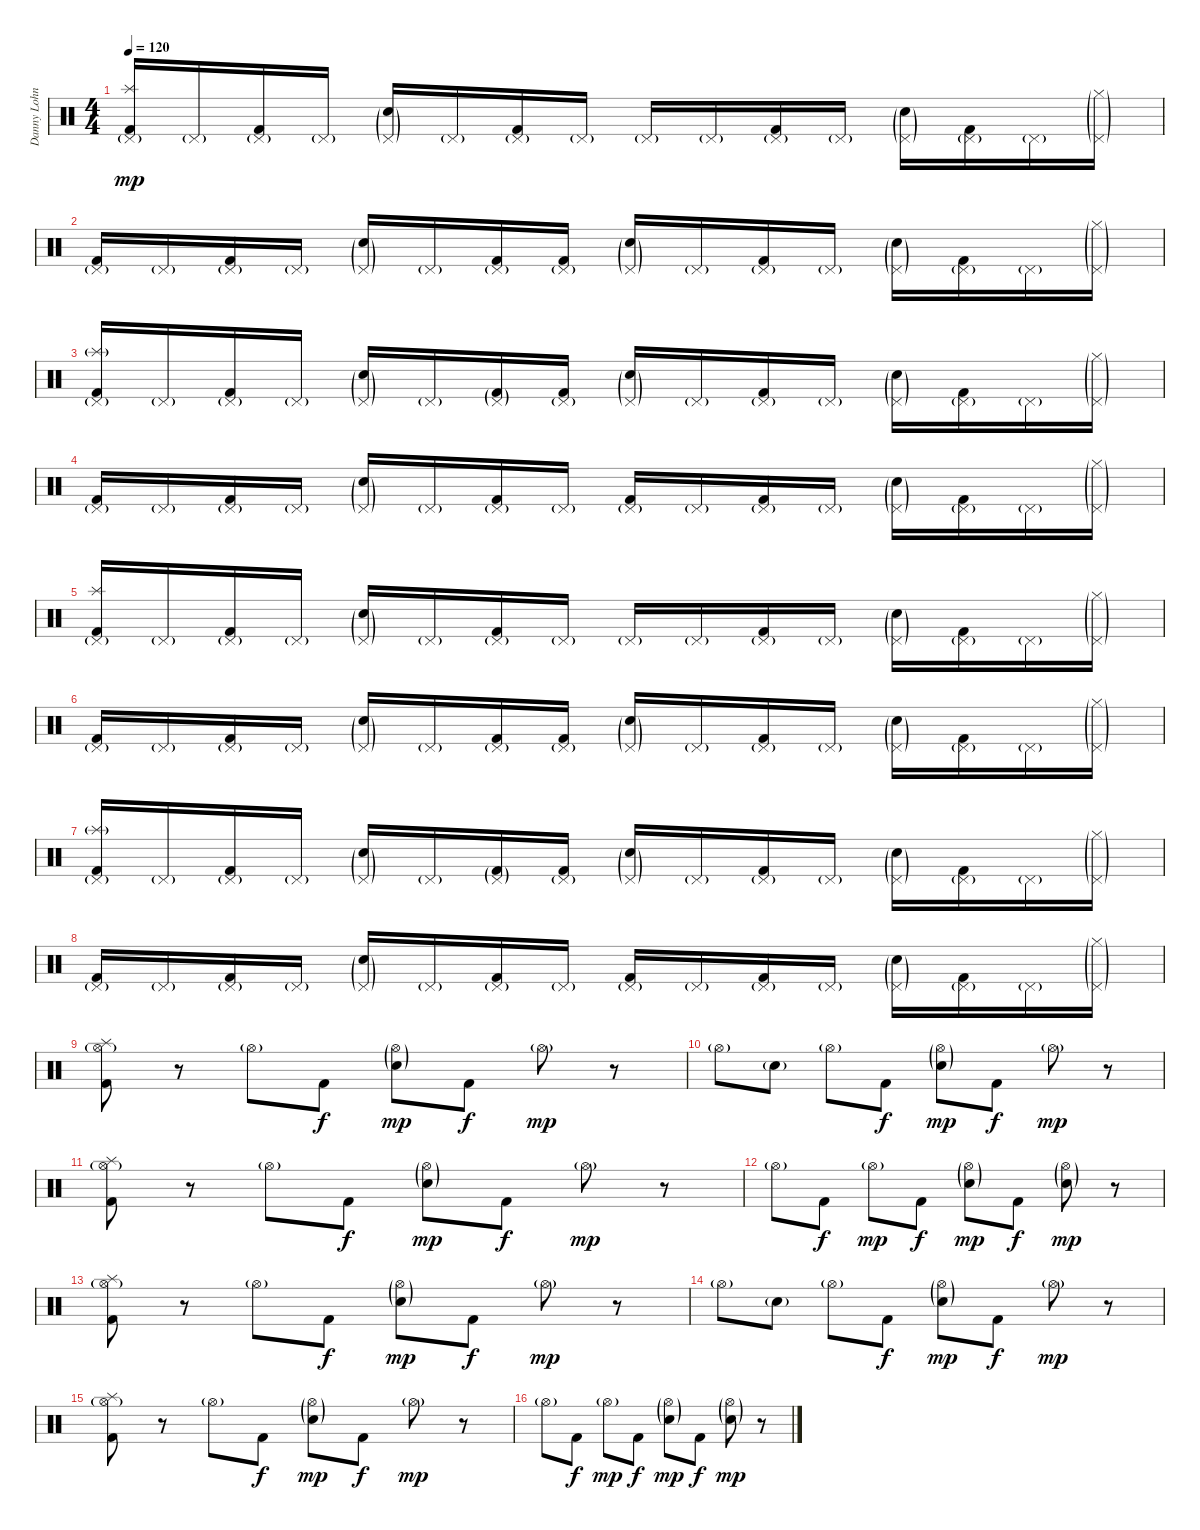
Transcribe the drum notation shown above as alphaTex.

\track ("Danny Lohner" "Danny Lohn") {instrument percussion}
\staff {score}
\articulation defaults
\ts (4 4)
\tempo 120
\clef neutral
\ks c
("Pedal Hi-Hat (hit)"{g} "Splash (hit)" "Kick (hit) 2").16{dy mp} "Pedal Hi-Hat (hit)"{g}.16 ("Pedal Hi-Hat (hit)"{g} "Kick (hit) 2").16 "Pedal Hi-Hat (hit)"{g}.16 ("Pedal Hi-Hat (hit)"{g} "Electric Snare (hit)"{g}).16 "Pedal Hi-Hat (hit)"{g}.16 ("Pedal Hi-Hat (hit)"{g} "Kick (hit) 2").16 "Pedal Hi-Hat (hit)"{g}.16 "Pedal Hi-Hat (hit)"{g}.16 "Pedal Hi-Hat (hit)"{g}.16 ("Pedal Hi-Hat (hit)"{g} "Kick (hit) 2").16 "Pedal Hi-Hat (hit)"{g}.16 ("Pedal Hi-Hat (hit)"{g} "Electric Snare (hit)"{g}).16 ("Pedal Hi-Hat (hit)"{g} "Kick (hit) 2").16 "Pedal Hi-Hat (hit)"{g}.16 ("Pedal Hi-Hat (hit)"{g} "Hi-Hat (closed)"{g}).16 |
("Pedal Hi-Hat (hit)"{g} "Kick (hit) 2").16 "Pedal Hi-Hat (hit)"{g}.16 ("Pedal Hi-Hat (hit)"{g} "Kick (hit) 2").16 "Pedal Hi-Hat (hit)"{g}.16 ("Pedal Hi-Hat (hit)"{g} "Electric Snare (hit)"{g}).16 "Pedal Hi-Hat (hit)"{g}.16 ("Pedal Hi-Hat (hit)"{g} "Kick (hit) 2").16 ("Pedal Hi-Hat (hit)"{g} "Kick (hit) 2").16 ("Pedal Hi-Hat (hit)"{g} "Electric Snare (hit)"{g}).16 "Pedal Hi-Hat (hit)"{g}.16 ("Pedal Hi-Hat (hit)"{g} "Kick (hit) 2").16 "Pedal Hi-Hat (hit)"{g}.16 ("Pedal Hi-Hat (hit)"{g} "Electric Snare (hit)"{g}).16 ("Pedal Hi-Hat (hit)"{g} "Kick (hit) 2").16 "Pedal Hi-Hat (hit)"{g}.16 ("Pedal Hi-Hat (hit)"{g} "Hi-Hat (closed)"{g}).16 |
("Pedal Hi-Hat (hit)"{g} "Splash (hit)"{g} "Kick (hit) 2").16 "Pedal Hi-Hat (hit)"{g}.16 ("Pedal Hi-Hat (hit)"{g} "Kick (hit) 2").16 "Pedal Hi-Hat (hit)"{g}.16 ("Pedal Hi-Hat (hit)"{g} "Electric Snare (hit)"{g}).16 "Pedal Hi-Hat (hit)"{g}.16 ("Pedal Hi-Hat (hit)"{g} "Kick (hit) 2"{g}).16 ("Pedal Hi-Hat (hit)"{g} "Kick (hit) 2").16 ("Pedal Hi-Hat (hit)"{g} "Electric Snare (hit)"{g}).16 "Pedal Hi-Hat (hit)"{g}.16 ("Pedal Hi-Hat (hit)"{g} "Kick (hit) 2").16 "Pedal Hi-Hat (hit)"{g}.16 ("Pedal Hi-Hat (hit)"{g} "Electric Snare (hit)"{g}).16 ("Pedal Hi-Hat (hit)"{g} "Kick (hit) 2").16 "Pedal Hi-Hat (hit)"{g}.16 ("Pedal Hi-Hat (hit)"{g} "Hi-Hat (closed)"{g}).16 |
("Pedal Hi-Hat (hit)"{g} "Kick (hit) 2").16 "Pedal Hi-Hat (hit)"{g}.16 ("Pedal Hi-Hat (hit)"{g} "Kick (hit) 2").16 "Pedal Hi-Hat (hit)"{g}.16 ("Pedal Hi-Hat (hit)"{g} "Electric Snare (hit)"{g}).16 "Pedal Hi-Hat (hit)"{g}.16 ("Pedal Hi-Hat (hit)"{g} "Kick (hit) 2").16 "Pedal Hi-Hat (hit)"{g}.16 ("Pedal Hi-Hat (hit)"{g} "Kick (hit) 2").16 "Pedal Hi-Hat (hit)"{g}.16 ("Pedal Hi-Hat (hit)"{g} "Kick (hit) 2").16 "Pedal Hi-Hat (hit)"{g}.16 ("Pedal Hi-Hat (hit)"{g} "Electric Snare (hit)"{g}).16 ("Pedal Hi-Hat (hit)"{g} "Kick (hit) 2").16 "Pedal Hi-Hat (hit)"{g}.16 ("Pedal Hi-Hat (hit)"{g} "Hi-Hat (closed)"{g}).16 |
("Pedal Hi-Hat (hit)"{g} "Splash (hit)" "Kick (hit) 2").16 "Pedal Hi-Hat (hit)"{g}.16 ("Pedal Hi-Hat (hit)"{g} "Kick (hit) 2").16 "Pedal Hi-Hat (hit)"{g}.16 ("Pedal Hi-Hat (hit)"{g} "Electric Snare (hit)"{g}).16 "Pedal Hi-Hat (hit)"{g}.16 ("Pedal Hi-Hat (hit)"{g} "Kick (hit) 2").16 "Pedal Hi-Hat (hit)"{g}.16 "Pedal Hi-Hat (hit)"{g}.16 "Pedal Hi-Hat (hit)"{g}.16 ("Pedal Hi-Hat (hit)"{g} "Kick (hit) 2").16 "Pedal Hi-Hat (hit)"{g}.16 ("Pedal Hi-Hat (hit)"{g} "Electric Snare (hit)"{g}).16 ("Pedal Hi-Hat (hit)"{g} "Kick (hit) 2").16 "Pedal Hi-Hat (hit)"{g}.16 ("Pedal Hi-Hat (hit)"{g} "Hi-Hat (closed)"{g}).16 |
("Pedal Hi-Hat (hit)"{g} "Kick (hit) 2").16 "Pedal Hi-Hat (hit)"{g}.16 ("Pedal Hi-Hat (hit)"{g} "Kick (hit) 2").16 "Pedal Hi-Hat (hit)"{g}.16 ("Pedal Hi-Hat (hit)"{g} "Electric Snare (hit)"{g}).16 "Pedal Hi-Hat (hit)"{g}.16 ("Pedal Hi-Hat (hit)"{g} "Kick (hit) 2").16 ("Pedal Hi-Hat (hit)"{g} "Kick (hit) 2").16 ("Pedal Hi-Hat (hit)"{g} "Electric Snare (hit)"{g}).16 "Pedal Hi-Hat (hit)"{g}.16 ("Pedal Hi-Hat (hit)"{g} "Kick (hit) 2").16 "Pedal Hi-Hat (hit)"{g}.16 ("Pedal Hi-Hat (hit)"{g} "Electric Snare (hit)"{g}).16 ("Pedal Hi-Hat (hit)"{g} "Kick (hit) 2").16 "Pedal Hi-Hat (hit)"{g}.16 ("Pedal Hi-Hat (hit)"{g} "Hi-Hat (closed)"{g}).16 |
("Pedal Hi-Hat (hit)"{g} "Splash (hit)"{g} "Kick (hit) 2").16 "Pedal Hi-Hat (hit)"{g}.16 ("Pedal Hi-Hat (hit)"{g} "Kick (hit) 2").16 "Pedal Hi-Hat (hit)"{g}.16 ("Pedal Hi-Hat (hit)"{g} "Electric Snare (hit)"{g}).16 "Pedal Hi-Hat (hit)"{g}.16 ("Pedal Hi-Hat (hit)"{g} "Kick (hit) 2"{g}).16 ("Pedal Hi-Hat (hit)"{g} "Kick (hit) 2").16 ("Pedal Hi-Hat (hit)"{g} "Electric Snare (hit)"{g}).16 "Pedal Hi-Hat (hit)"{g}.16 ("Pedal Hi-Hat (hit)"{g} "Kick (hit) 2").16 "Pedal Hi-Hat (hit)"{g}.16 ("Pedal Hi-Hat (hit)"{g} "Electric Snare (hit)"{g}).16 ("Pedal Hi-Hat (hit)"{g} "Kick (hit) 2").16 "Pedal Hi-Hat (hit)"{g}.16 ("Pedal Hi-Hat (hit)"{g} "Hi-Hat (closed)"{g}).16 |
("Pedal Hi-Hat (hit)"{g} "Kick (hit) 2").16 "Pedal Hi-Hat (hit)"{g}.16 ("Pedal Hi-Hat (hit)"{g} "Kick (hit) 2").16 "Pedal Hi-Hat (hit)"{g}.16 ("Pedal Hi-Hat (hit)"{g} "Electric Snare (hit)"{g}).16 "Pedal Hi-Hat (hit)"{g}.16 ("Pedal Hi-Hat (hit)"{g} "Kick (hit) 2").16 "Pedal Hi-Hat (hit)"{g}.16 ("Pedal Hi-Hat (hit)"{g} "Kick (hit) 2").16 "Pedal Hi-Hat (hit)"{g}.16 ("Pedal Hi-Hat (hit)"{g} "Kick (hit) 2").16 "Pedal Hi-Hat (hit)"{g}.16 ("Pedal Hi-Hat (hit)"{g} "Electric Snare (hit)"{g}).16 ("Pedal Hi-Hat (hit)"{g} "Kick (hit) 2").16 "Pedal Hi-Hat (hit)"{g}.16 ("Pedal Hi-Hat (hit)"{g} "Hi-Hat (closed)"{g}).16 |
("Hi-Hat (open)"{g} "Splash (hit)" "Kick (hit) 2").8 r.8 "Hi-Hat (open)"{g}.8 "Kick (hit) 2".8{dy f} ("Hi-Hat (open)"{g} "Electric Snare (hit)"{g}).8{dy mp} "Kick (hit) 2".8{dy f} "Hi-Hat (open)"{g}.8{dy mp} r.8 |
"Hi-Hat (open)"{g}.8 "Electric Snare (hit)"{g}.8 "Hi-Hat (open)"{g}.8 "Kick (hit) 2".8{dy f} ("Hi-Hat (open)"{g} "Electric Snare (hit)"{g}).8{dy mp} "Kick (hit) 2".8{dy f} "Hi-Hat (open)"{g}.8{dy mp} r.8 |
("Hi-Hat (open)"{g} "Splash (hit)" "Kick (hit) 2").8 r.8 "Hi-Hat (open)"{g}.8 "Kick (hit) 2".8{dy f} ("Hi-Hat (open)"{g} "Electric Snare (hit)"{g}).8{dy mp} "Kick (hit) 2".8{dy f} "Hi-Hat (open)"{g}.8{dy mp} r.8 |
"Hi-Hat (open)"{g}.8 "Kick (hit) 2".8{dy f} "Hi-Hat (open)"{g}.8{dy mp} "Kick (hit) 2".8{dy f} ("Hi-Hat (open)"{g} "Electric Snare (hit)"{g}).8{dy mp} "Kick (hit) 2".8{dy f} ("Hi-Hat (open)"{g} "Electric Snare (hit)"{g}).8{dy mp} r.8 |
("Hi-Hat (open)"{g} "Splash (hit)" "Kick (hit) 2").8 r.8 "Hi-Hat (open)"{g}.8 "Kick (hit) 2".8{dy f} ("Hi-Hat (open)"{g} "Electric Snare (hit)"{g}).8{dy mp} "Kick (hit) 2".8{dy f} "Hi-Hat (open)"{g}.8{dy mp} r.8 |
"Hi-Hat (open)"{g}.8 "Electric Snare (hit)"{g}.8 "Hi-Hat (open)"{g}.8 "Kick (hit) 2".8{dy f} ("Hi-Hat (open)"{g} "Electric Snare (hit)"{g}).8{dy mp} "Kick (hit) 2".8{dy f} "Hi-Hat (open)"{g}.8{dy mp} r.8 |
("Hi-Hat (open)"{g} "Splash (hit)" "Kick (hit) 2").8 r.8 "Hi-Hat (open)"{g}.8 "Kick (hit) 2".8{dy f} ("Hi-Hat (open)"{g} "Electric Snare (hit)"{g}).8{dy mp} "Kick (hit) 2".8{dy f} "Hi-Hat (open)"{g}.8{dy mp} r.8 |
"Hi-Hat (open)"{g}.8 "Kick (hit) 2".8{dy f} "Hi-Hat (open)"{g}.8{dy mp} "Kick (hit) 2".8{dy f} ("Hi-Hat (open)"{g} "Electric Snare (hit)"{g}).8{dy mp} "Kick (hit) 2".8{dy f} ("Hi-Hat (open)"{g} "Electric Snare (hit)"{g}).8{dy mp} r.8
